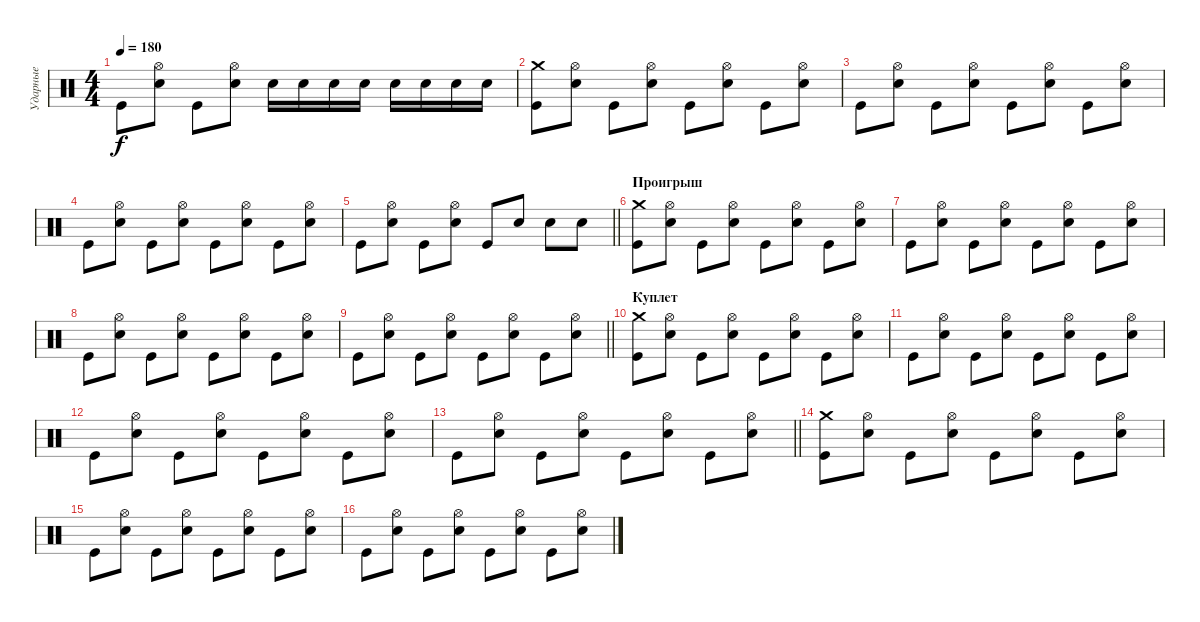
\track ("Ударные" "Ударные") {instrument percussion}
\staff {score}
\articulation defaults
\ts (4 4)
\tempo 180
\clef neutral
\ks c "Kick (hit)".8{dy f}
("Hi-Hat (open)" "Electric Snare (hit)").8 "Kick (hit)".8 ("Hi-Hat (open)" "Electric Snare (hit)").8 "Electric Snare (hit)".16 "Electric Snare (hit)".16 "Electric Snare (hit)".16 "Electric Snare (hit)".16 "Electric Snare (hit)".16 "Electric Snare (hit)".16 "Electric Snare (hit)".16 "Electric Snare (hit)".16 |
("Crash medium (hit)" "Kick (hit)").8 ("Hi-Hat (open)" "Electric Snare (hit)").8 "Kick (hit)".8 ("Hi-Hat (open)" "Electric Snare (hit)").8 "Kick (hit)".8 ("Hi-Hat (open)" "Electric Snare (hit)").8 "Kick (hit)".8 ("Hi-Hat (open)" "Electric Snare (hit)").8 |
"Kick (hit)".8 ("Hi-Hat (open)" "Electric Snare (hit)").8 "Kick (hit)".8 ("Hi-Hat (open)" "Electric Snare (hit)").8 "Kick (hit)".8 ("Hi-Hat (open)" "Electric Snare (hit)").8 "Kick (hit)".8 ("Hi-Hat (open)" "Electric Snare (hit)").8 |
"Kick (hit)".8 ("Hi-Hat (open)" "Electric Snare (hit)").8 "Kick (hit)".8 ("Hi-Hat (open)" "Electric Snare (hit)").8 "Kick (hit)".8 ("Hi-Hat (open)" "Electric Snare (hit)").8 "Kick (hit)".8 ("Hi-Hat (open)" "Electric Snare (hit)").8 |
\barLineRight lightlight "Kick (hit)".8
("Hi-Hat (open)" "Electric Snare (hit)").8 "Kick (hit)".8 ("Hi-Hat (open)" "Electric Snare (hit)").8 "Kick (hit)".8 "Electric Snare (hit)".8 "Electric Snare (hit)".8 "Electric Snare (hit)".8 |
\section ("" "Проигрыш")
("Crash medium (hit)" "Kick (hit)").8 ("Hi-Hat (open)" "Electric Snare (hit)").8 "Kick (hit)".8 ("Hi-Hat (open)" "Electric Snare (hit)").8 "Kick (hit)".8 ("Hi-Hat (open)" "Electric Snare (hit)").8 "Kick (hit)".8 ("Hi-Hat (open)" "Electric Snare (hit)").8 |
"Kick (hit)".8 ("Hi-Hat (open)" "Electric Snare (hit)").8 "Kick (hit)".8 ("Hi-Hat (open)" "Electric Snare (hit)").8 "Kick (hit)".8 ("Hi-Hat (open)" "Electric Snare (hit)").8 "Kick (hit)".8 ("Hi-Hat (open)" "Electric Snare (hit)").8 |
"Kick (hit)".8 ("Hi-Hat (open)" "Electric Snare (hit)").8 "Kick (hit)".8 ("Hi-Hat (open)" "Electric Snare (hit)").8 "Kick (hit)".8 ("Hi-Hat (open)" "Electric Snare (hit)").8 "Kick (hit)".8 ("Hi-Hat (open)" "Electric Snare (hit)").8 |
\barLineRight lightlight "Kick (hit)".8
("Hi-Hat (open)" "Electric Snare (hit)").8 "Kick (hit)".8 ("Hi-Hat (open)" "Electric Snare (hit)").8 "Kick (hit)".8 ("Hi-Hat (open)" "Electric Snare (hit)").8 "Kick (hit)".8 ("Hi-Hat (open)" "Electric Snare (hit)").8 |
\section ("" "Куплет")
("Crash medium (hit)" "Kick (hit)").8 ("Hi-Hat (open)" "Electric Snare (hit)").8 "Kick (hit)".8 ("Hi-Hat (open)" "Electric Snare (hit)").8 "Kick (hit)".8 ("Hi-Hat (open)" "Electric Snare (hit)").8 "Kick (hit)".8 ("Hi-Hat (open)" "Electric Snare (hit)").8 |
"Kick (hit)".8 ("Hi-Hat (open)" "Electric Snare (hit)").8 "Kick (hit)".8 ("Hi-Hat (open)" "Electric Snare (hit)").8 "Kick (hit)".8 ("Hi-Hat (open)" "Electric Snare (hit)").8 "Kick (hit)".8 ("Hi-Hat (open)" "Electric Snare (hit)").8 |
"Kick (hit)".8 ("Hi-Hat (open)" "Electric Snare (hit)").8 "Kick (hit)".8 ("Hi-Hat (open)" "Electric Snare (hit)").8 "Kick (hit)".8 ("Hi-Hat (open)" "Electric Snare (hit)").8 "Kick (hit)".8 ("Hi-Hat (open)" "Electric Snare (hit)").8 |
\barLineRight lightlight "Kick (hit)".8
("Hi-Hat (open)" "Electric Snare (hit)").8 "Kick (hit)".8 ("Hi-Hat (open)" "Electric Snare (hit)").8 "Kick (hit)".8 ("Hi-Hat (open)" "Electric Snare (hit)").8 "Kick (hit)".8 ("Hi-Hat (open)" "Electric Snare (hit)").8 |
\section ("" " ")
("Crash medium (hit)" "Kick (hit)").8 ("Hi-Hat (open)" "Electric Snare (hit)").8 "Kick (hit)".8 ("Hi-Hat (open)" "Electric Snare (hit)").8 "Kick (hit)".8 ("Hi-Hat (open)" "Electric Snare (hit)").8 "Kick (hit)".8 ("Hi-Hat (open)" "Electric Snare (hit)").8 |
"Kick (hit)".8 ("Hi-Hat (open)" "Electric Snare (hit)").8 "Kick (hit)".8 ("Hi-Hat (open)" "Electric Snare (hit)").8 "Kick (hit)".8 ("Hi-Hat (open)" "Electric Snare (hit)").8 "Kick (hit)".8 ("Hi-Hat (open)" "Electric Snare (hit)").8 |
"Kick (hit)".8 ("Hi-Hat (open)" "Electric Snare (hit)").8 "Kick (hit)".8 ("Hi-Hat (open)" "Electric Snare (hit)").8 "Kick (hit)".8 ("Hi-Hat (open)" "Electric Snare (hit)").8 "Kick (hit)".8 ("Hi-Hat (open)" "Electric Snare (hit)").8
